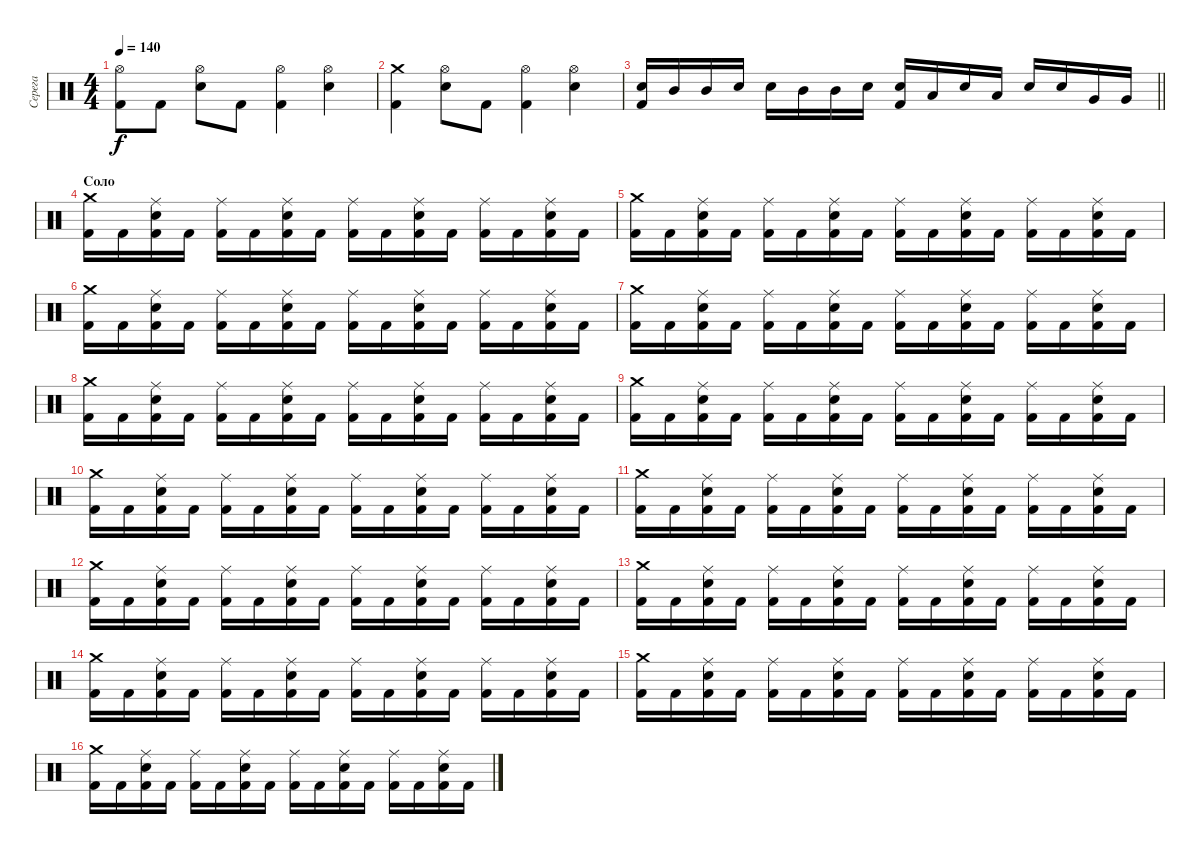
\track ("Серега" "Серега") {instrument percussion}
\staff {score}
\articulation defaults
\ts (4 4)
\tempo 140
\clef neutral
\ks c
("Hi-Hat (open)" "Kick (hit) 2").8{dy f} "Kick (hit) 2".8 ("Hi-Hat (open)" "Electric Snare (hit)").8 "Kick (hit) 2".8 ("Hi-Hat (open)" "Kick (hit) 2").4 ("Hi-Hat (open)" "Electric Snare (hit)").4 |
("Crash medium (hit)" "Kick (hit) 2").4 ("Hi-Hat (open)" "Electric Snare (hit)").8 "Kick (hit) 2".8 ("Hi-Hat (open)" "Kick (hit) 2").4 ("Hi-Hat (open)" "Electric Snare (hit)").4 |
\barLineRight lightlight
("Electric Snare (hit)" "Kick (hit) 2").16 "Mid Tom (hit)".16 "Mid Tom (hit)".16 "Electric Snare (hit)".16 "Electric Snare (hit)".16 "Mid Tom (hit)".16 "Mid Tom (hit)".16 "Electric Snare (hit)".16 ("Electric Snare (hit)" "Kick (hit) 2").16 "Low Tom (hit)".16 "Electric Snare (hit)".16 "Low Tom (hit)".16 "Electric Snare (hit)".16 "Electric Snare (hit)".16 "Very Low Tom (hit)".16 "Very Low Tom (hit)".16 |
\section ("" "Соло")
("Kick (hit) 2" "Crash medium (hit)").16 "Kick (hit) 2".16 ("Kick (hit) 2" "Electric Snare (hit)" "Ride (middle)").16 "Kick (hit) 2".16 ("Kick (hit) 2" "Ride (middle)").16 "Kick (hit) 2".16 ("Kick (hit) 2" "Electric Snare (hit)" "Ride (middle)").16 "Kick (hit) 2".16 ("Kick (hit) 2" "Ride (middle)").16 "Kick (hit) 2".16 ("Kick (hit) 2" "Electric Snare (hit)" "Ride (middle)").16 "Kick (hit) 2".16 ("Kick (hit) 2" "Ride (middle)").16 "Kick (hit) 2".16 ("Kick (hit) 2" "Electric Snare (hit)" "Ride (middle)").16 "Kick (hit) 2".16 |
("Kick (hit) 2" "Crash medium (hit)").16 "Kick (hit) 2".16 ("Kick (hit) 2" "Electric Snare (hit)" "Ride (middle)").16 "Kick (hit) 2".16 ("Kick (hit) 2" "Ride (middle)").16 "Kick (hit) 2".16 ("Kick (hit) 2" "Electric Snare (hit)" "Ride (middle)").16 "Kick (hit) 2".16 ("Kick (hit) 2" "Ride (middle)").16 "Kick (hit) 2".16 ("Kick (hit) 2" "Electric Snare (hit)" "Ride (middle)").16 "Kick (hit) 2".16 ("Kick (hit) 2" "Ride (middle)").16 "Kick (hit) 2".16 ("Kick (hit) 2" "Electric Snare (hit)" "Ride (middle)").16 "Kick (hit) 2".16 |
("Kick (hit) 2" "Crash medium (hit)").16 "Kick (hit) 2".16 ("Kick (hit) 2" "Electric Snare (hit)" "Ride (middle)").16 "Kick (hit) 2".16 ("Kick (hit) 2" "Ride (middle)").16 "Kick (hit) 2".16 ("Kick (hit) 2" "Electric Snare (hit)" "Ride (middle)").16 "Kick (hit) 2".16 ("Kick (hit) 2" "Ride (middle)").16 "Kick (hit) 2".16 ("Kick (hit) 2" "Electric Snare (hit)" "Ride (middle)").16 "Kick (hit) 2".16 ("Kick (hit) 2" "Ride (middle)").16 "Kick (hit) 2".16 ("Kick (hit) 2" "Electric Snare (hit)" "Ride (middle)").16 "Kick (hit) 2".16 |
("Kick (hit) 2" "Crash medium (hit)").16 "Kick (hit) 2".16 ("Kick (hit) 2" "Electric Snare (hit)" "Ride (middle)").16 "Kick (hit) 2".16 ("Kick (hit) 2" "Ride (middle)").16 "Kick (hit) 2".16 ("Kick (hit) 2" "Electric Snare (hit)" "Ride (middle)").16 "Kick (hit) 2".16 ("Kick (hit) 2" "Ride (middle)").16 "Kick (hit) 2".16 ("Kick (hit) 2" "Electric Snare (hit)" "Ride (middle)").16 "Kick (hit) 2".16 ("Kick (hit) 2" "Ride (middle)").16 "Kick (hit) 2".16 ("Kick (hit) 2" "Electric Snare (hit)" "Ride (middle)").16 "Kick (hit) 2".16 |
("Kick (hit) 2" "Crash medium (hit)").16 "Kick (hit) 2".16 ("Kick (hit) 2" "Electric Snare (hit)" "Ride (middle)").16 "Kick (hit) 2".16 ("Kick (hit) 2" "Ride (middle)").16 "Kick (hit) 2".16 ("Kick (hit) 2" "Electric Snare (hit)" "Ride (middle)").16 "Kick (hit) 2".16 ("Kick (hit) 2" "Ride (middle)").16 "Kick (hit) 2".16 ("Kick (hit) 2" "Electric Snare (hit)" "Ride (middle)").16 "Kick (hit) 2".16 ("Kick (hit) 2" "Ride (middle)").16 "Kick (hit) 2".16 ("Kick (hit) 2" "Electric Snare (hit)" "Ride (middle)").16 "Kick (hit) 2".16 |
("Kick (hit) 2" "Crash medium (hit)").16 "Kick (hit) 2".16 ("Kick (hit) 2" "Electric Snare (hit)" "Ride (middle)").16 "Kick (hit) 2".16 ("Kick (hit) 2" "Ride (middle)").16 "Kick (hit) 2".16 ("Kick (hit) 2" "Electric Snare (hit)" "Ride (middle)").16 "Kick (hit) 2".16 ("Kick (hit) 2" "Ride (middle)").16 "Kick (hit) 2".16 ("Kick (hit) 2" "Electric Snare (hit)" "Ride (middle)").16 "Kick (hit) 2".16 ("Kick (hit) 2" "Ride (middle)").16 "Kick (hit) 2".16 ("Kick (hit) 2" "Electric Snare (hit)" "Ride (middle)").16 "Kick (hit) 2".16 |
("Kick (hit) 2" "Crash medium (hit)").16 "Kick (hit) 2".16 ("Kick (hit) 2" "Electric Snare (hit)" "Ride (middle)").16 "Kick (hit) 2".16 ("Kick (hit) 2" "Ride (middle)").16 "Kick (hit) 2".16 ("Kick (hit) 2" "Electric Snare (hit)" "Ride (middle)").16 "Kick (hit) 2".16 ("Kick (hit) 2" "Ride (middle)").16 "Kick (hit) 2".16 ("Kick (hit) 2" "Electric Snare (hit)" "Ride (middle)").16 "Kick (hit) 2".16 ("Kick (hit) 2" "Ride (middle)").16 "Kick (hit) 2".16 ("Kick (hit) 2" "Electric Snare (hit)" "Ride (middle)").16 "Kick (hit) 2".16 |
("Kick (hit) 2" "Crash medium (hit)").16 "Kick (hit) 2".16 ("Kick (hit) 2" "Electric Snare (hit)" "Ride (middle)").16 "Kick (hit) 2".16 ("Kick (hit) 2" "Ride (middle)").16 "Kick (hit) 2".16 ("Kick (hit) 2" "Electric Snare (hit)" "Ride (middle)").16 "Kick (hit) 2".16 ("Kick (hit) 2" "Ride (middle)").16 "Kick (hit) 2".16 ("Kick (hit) 2" "Electric Snare (hit)" "Ride (middle)").16 "Kick (hit) 2".16 ("Kick (hit) 2" "Ride (middle)").16 "Kick (hit) 2".16 ("Kick (hit) 2" "Electric Snare (hit)" "Ride (middle)").16 "Kick (hit) 2".16 |
("Kick (hit) 2" "Crash medium (hit)").16 "Kick (hit) 2".16 ("Kick (hit) 2" "Electric Snare (hit)" "Ride (middle)").16 "Kick (hit) 2".16 ("Kick (hit) 2" "Ride (middle)").16 "Kick (hit) 2".16 ("Kick (hit) 2" "Electric Snare (hit)" "Ride (middle)").16 "Kick (hit) 2".16 ("Kick (hit) 2" "Ride (middle)").16 "Kick (hit) 2".16 ("Kick (hit) 2" "Electric Snare (hit)" "Ride (middle)").16 "Kick (hit) 2".16 ("Kick (hit) 2" "Ride (middle)").16 "Kick (hit) 2".16 ("Kick (hit) 2" "Electric Snare (hit)" "Ride (middle)").16 "Kick (hit) 2".16 |
("Kick (hit) 2" "Crash medium (hit)").16 "Kick (hit) 2".16 ("Kick (hit) 2" "Electric Snare (hit)" "Ride (middle)").16 "Kick (hit) 2".16 ("Kick (hit) 2" "Ride (middle)").16 "Kick (hit) 2".16 ("Kick (hit) 2" "Electric Snare (hit)" "Ride (middle)").16 "Kick (hit) 2".16 ("Kick (hit) 2" "Ride (middle)").16 "Kick (hit) 2".16 ("Kick (hit) 2" "Electric Snare (hit)" "Ride (middle)").16 "Kick (hit) 2".16 ("Kick (hit) 2" "Ride (middle)").16 "Kick (hit) 2".16 ("Kick (hit) 2" "Electric Snare (hit)" "Ride (middle)").16 "Kick (hit) 2".16 |
("Kick (hit) 2" "Crash medium (hit)").16 "Kick (hit) 2".16 ("Kick (hit) 2" "Electric Snare (hit)" "Ride (middle)").16 "Kick (hit) 2".16 ("Kick (hit) 2" "Ride (middle)").16 "Kick (hit) 2".16 ("Kick (hit) 2" "Electric Snare (hit)" "Ride (middle)").16 "Kick (hit) 2".16 ("Kick (hit) 2" "Ride (middle)").16 "Kick (hit) 2".16 ("Kick (hit) 2" "Electric Snare (hit)" "Ride (middle)").16 "Kick (hit) 2".16 ("Kick (hit) 2" "Ride (middle)").16 "Kick (hit) 2".16 ("Kick (hit) 2" "Electric Snare (hit)" "Ride (middle)").16 "Kick (hit) 2".16 |
("Kick (hit) 2" "Crash medium (hit)").16 "Kick (hit) 2".16 ("Kick (hit) 2" "Electric Snare (hit)" "Ride (middle)").16 "Kick (hit) 2".16 ("Kick (hit) 2" "Ride (middle)").16 "Kick (hit) 2".16 ("Kick (hit) 2" "Electric Snare (hit)" "Ride (middle)").16 "Kick (hit) 2".16 ("Kick (hit) 2" "Ride (middle)").16 "Kick (hit) 2".16 ("Kick (hit) 2" "Electric Snare (hit)" "Ride (middle)").16 "Kick (hit) 2".16 ("Kick (hit) 2" "Ride (middle)").16 "Kick (hit) 2".16 ("Kick (hit) 2" "Electric Snare (hit)" "Ride (middle)").16 "Kick (hit) 2".16 |
("Kick (hit) 2" "Crash medium (hit)").16 "Kick (hit) 2".16 ("Kick (hit) 2" "Electric Snare (hit)" "Ride (middle)").16 "Kick (hit) 2".16 ("Kick (hit) 2" "Ride (middle)").16 "Kick (hit) 2".16 ("Kick (hit) 2" "Electric Snare (hit)" "Ride (middle)").16 "Kick (hit) 2".16 ("Kick (hit) 2" "Ride (middle)").16 "Kick (hit) 2".16 ("Kick (hit) 2" "Electric Snare (hit)" "Ride (middle)").16 "Kick (hit) 2".16 ("Kick (hit) 2" "Ride (middle)").16 "Kick (hit) 2".16 ("Kick (hit) 2" "Electric Snare (hit)" "Ride (middle)").16 "Kick (hit) 2".16
